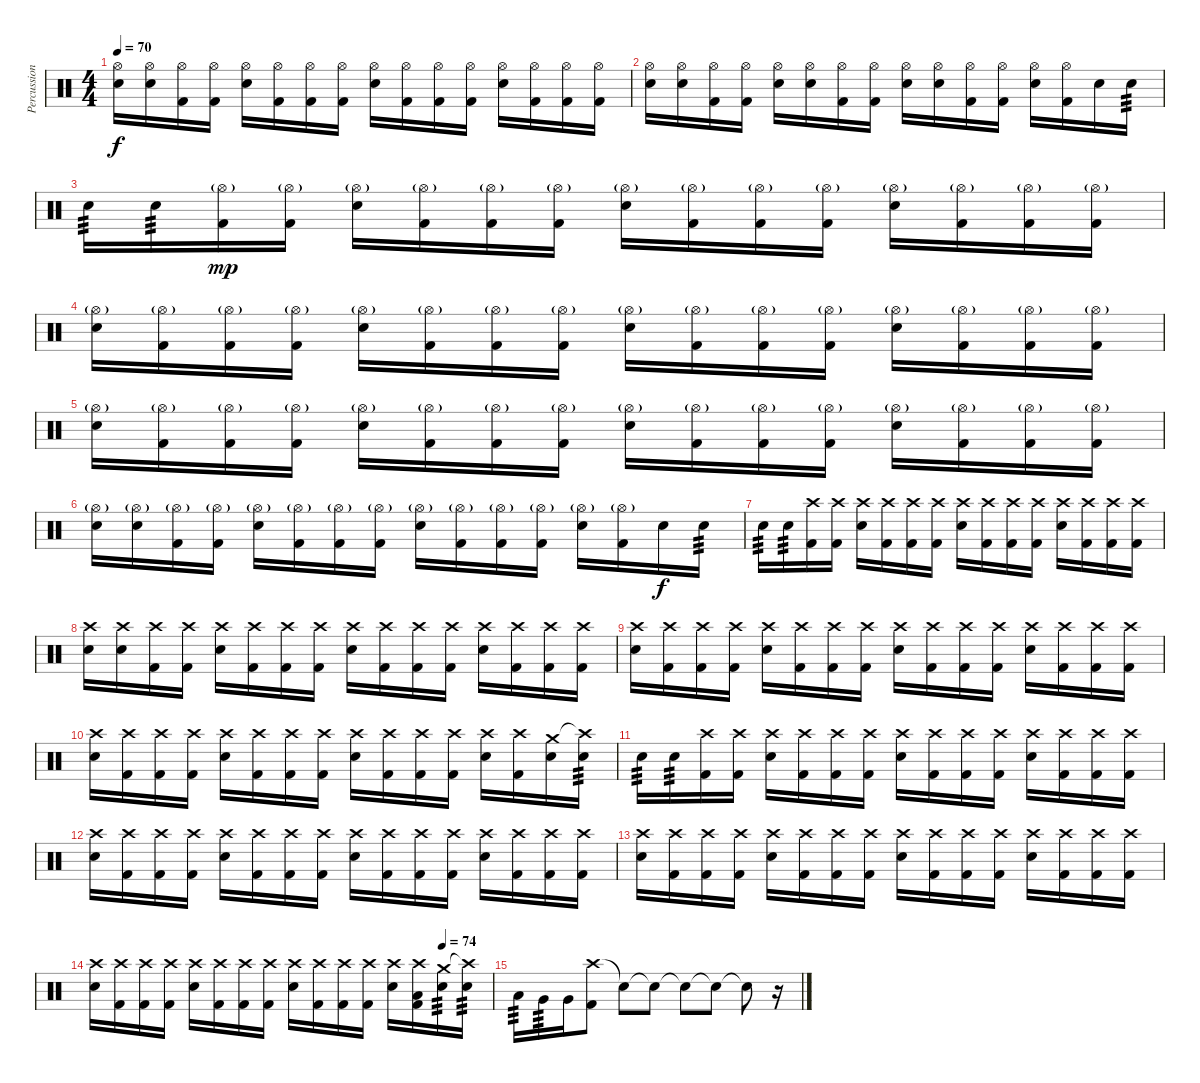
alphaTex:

\track ("Percussion" "Percussion") {instrument percussion}
\staff {score}
\articulation defaults
\ts (4 4)
\tempo 70
\clef neutral
\ks c
("Hi-Hat (open)" "Electric Snare (hit)").16{dy f} ("Hi-Hat (open)" "Electric Snare (hit)").16 ("Hi-Hat (open)" "Kick (hit) 2").16 ("Hi-Hat (open)" "Kick (hit) 2").16 ("Hi-Hat (open)" "Electric Snare (hit)").16 ("Hi-Hat (open)" "Kick (hit) 2").16 ("Hi-Hat (open)" "Kick (hit) 2").16 ("Hi-Hat (open)" "Kick (hit) 2").16 ("Hi-Hat (open)" "Electric Snare (hit)").16 ("Hi-Hat (open)" "Kick (hit) 2").16 ("Hi-Hat (open)" "Kick (hit) 2").16 ("Hi-Hat (open)" "Kick (hit) 2").16 ("Hi-Hat (open)" "Electric Snare (hit)").16 ("Hi-Hat (open)" "Kick (hit) 2").16 ("Hi-Hat (open)" "Kick (hit) 2").16 ("Hi-Hat (open)" "Kick (hit) 2").16 |
("Hi-Hat (open)" "Electric Snare (hit)").16 ("Hi-Hat (open)" "Electric Snare (hit)").16 ("Hi-Hat (open)" "Kick (hit) 2").16 ("Hi-Hat (open)" "Kick (hit) 2").16 ("Hi-Hat (open)" "Electric Snare (hit)").16 ("Hi-Hat (open)" "Electric Snare (hit)").16 ("Hi-Hat (open)" "Kick (hit) 2").16 ("Hi-Hat (open)" "Kick (hit) 2").16 ("Hi-Hat (open)" "Electric Snare (hit)").16 ("Hi-Hat (open)" "Electric Snare (hit)").16 ("Hi-Hat (open)" "Kick (hit) 2").16 ("Hi-Hat (open)" "Kick (hit) 2").16 ("Hi-Hat (open)" "Electric Snare (hit)").16 ("Hi-Hat (open)" "Kick (hit) 2").16 "Electric Snare (hit)".16 "Electric Snare (hit)".16{tp 3} |
"Electric Snare (hit)".16{tp 3} "Electric Snare (hit)".16{tp 3} ("Hi-Hat (open)"{g} "Kick (hit) 2").16{dy mp} ("Hi-Hat (open)"{g} "Kick (hit) 2").16 ("Hi-Hat (open)"{g} "Electric Snare (hit)").16 ("Hi-Hat (open)"{g} "Kick (hit) 2").16 ("Hi-Hat (open)"{g} "Kick (hit) 2").16 ("Hi-Hat (open)"{g} "Kick (hit) 2").16 ("Hi-Hat (open)"{g} "Electric Snare (hit)").16 ("Hi-Hat (open)"{g} "Kick (hit) 2").16 ("Hi-Hat (open)"{g} "Kick (hit) 2").16 ("Hi-Hat (open)"{g} "Kick (hit) 2").16 ("Hi-Hat (open)"{g} "Electric Snare (hit)").16 ("Hi-Hat (open)"{g} "Kick (hit) 2").16 ("Hi-Hat (open)"{g} "Kick (hit) 2").16 ("Hi-Hat (open)"{g} "Kick (hit) 2").16 |
("Hi-Hat (open)"{g} "Electric Snare (hit)").16 ("Hi-Hat (open)"{g} "Kick (hit) 2").16 ("Hi-Hat (open)"{g} "Kick (hit) 2").16 ("Hi-Hat (open)"{g} "Kick (hit) 2").16 ("Hi-Hat (open)"{g} "Electric Snare (hit)").16 ("Hi-Hat (open)"{g} "Kick (hit) 2").16 ("Hi-Hat (open)"{g} "Kick (hit) 2").16 ("Hi-Hat (open)"{g} "Kick (hit) 2").16 ("Hi-Hat (open)"{g} "Electric Snare (hit)").16 ("Hi-Hat (open)"{g} "Kick (hit) 2").16 ("Hi-Hat (open)"{g} "Kick (hit) 2").16 ("Hi-Hat (open)"{g} "Kick (hit) 2").16 ("Hi-Hat (open)"{g} "Electric Snare (hit)").16 ("Hi-Hat (open)"{g} "Kick (hit) 2").16 ("Hi-Hat (open)"{g} "Kick (hit) 2").16 ("Hi-Hat (open)"{g} "Kick (hit) 2").16 |
("Hi-Hat (open)"{g} "Electric Snare (hit)").16 ("Hi-Hat (open)"{g} "Kick (hit) 2").16 ("Hi-Hat (open)"{g} "Kick (hit) 2").16 ("Hi-Hat (open)"{g} "Kick (hit) 2").16 ("Hi-Hat (open)"{g} "Electric Snare (hit)").16 ("Hi-Hat (open)"{g} "Kick (hit) 2").16 ("Hi-Hat (open)"{g} "Kick (hit) 2").16 ("Hi-Hat (open)"{g} "Kick (hit) 2").16 ("Hi-Hat (open)"{g} "Electric Snare (hit)").16 ("Hi-Hat (open)"{g} "Kick (hit) 2").16 ("Hi-Hat (open)"{g} "Kick (hit) 2").16 ("Hi-Hat (open)"{g} "Kick (hit) 2").16 ("Hi-Hat (open)"{g} "Electric Snare (hit)").16 ("Hi-Hat (open)"{g} "Kick (hit) 2").16 ("Hi-Hat (open)"{g} "Kick (hit) 2").16 ("Hi-Hat (open)"{g} "Kick (hit) 2").16 |
("Hi-Hat (open)"{g} "Electric Snare (hit)").16 ("Hi-Hat (open)"{g} "Electric Snare (hit)").16 ("Hi-Hat (open)"{g} "Kick (hit) 2").16 ("Hi-Hat (open)"{g} "Kick (hit) 2").16 ("Hi-Hat (open)"{g} "Electric Snare (hit)").16 ("Hi-Hat (open)"{g} "Kick (hit) 2").16 ("Hi-Hat (open)"{g} "Kick (hit) 2").16 ("Hi-Hat (open)"{g} "Kick (hit) 2").16 ("Hi-Hat (open)"{g} "Electric Snare (hit)").16 ("Hi-Hat (open)"{g} "Kick (hit) 2").16 ("Hi-Hat (open)"{g} "Kick (hit) 2").16 ("Hi-Hat (open)"{g} "Kick (hit) 2").16 ("Hi-Hat (open)"{g} "Electric Snare (hit)").16 ("Hi-Hat (open)"{g} "Kick (hit) 2").16 "Electric Snare (hit)".16{dy f} "Electric Snare (hit)".16{tp 3} |
"Electric Snare (hit)".16{tp 3} "Electric Snare (hit)".16{tp 3} ("Crash high (hit)" "Kick (hit) 2").16 ("Crash high (hit)" "Kick (hit) 2").16 ("Crash high (hit)" "Electric Snare (hit)").16 ("Crash high (hit)" "Kick (hit) 2").16 ("Crash high (hit)" "Kick (hit) 2").16 ("Crash high (hit)" "Kick (hit) 2").16 ("Crash high (hit)" "Electric Snare (hit)").16 ("Crash high (hit)" "Kick (hit) 2").16 ("Crash high (hit)" "Kick (hit) 2").16 ("Crash high (hit)" "Kick (hit) 2").16 ("Crash high (hit)" "Electric Snare (hit)").16 ("Crash high (hit)" "Kick (hit) 2").16 ("Crash high (hit)" "Kick (hit) 2").16 ("Crash high (hit)" "Kick (hit) 2").16 |
("Crash high (hit)" "Electric Snare (hit)").16 ("Crash high (hit)" "Electric Snare (hit)").16 ("Crash high (hit)" "Kick (hit) 2").16 ("Crash high (hit)" "Kick (hit) 2").16 ("Crash high (hit)" "Electric Snare (hit)").16 ("Crash high (hit)" "Kick (hit) 2").16 ("Crash high (hit)" "Kick (hit) 2").16 ("Crash high (hit)" "Kick (hit) 2").16 ("Crash high (hit)" "Electric Snare (hit)").16 ("Crash high (hit)" "Kick (hit) 2").16 ("Crash high (hit)" "Kick (hit) 2").16 ("Crash high (hit)" "Kick (hit) 2").16 ("Crash high (hit)" "Electric Snare (hit)").16 ("Crash high (hit)" "Kick (hit) 2").16 ("Crash high (hit)" "Kick (hit) 2").16 ("Crash high (hit)" "Kick (hit) 2").16 |
("Crash high (hit)" "Electric Snare (hit)").16 ("Crash high (hit)" "Kick (hit) 2").16 ("Crash high (hit)" "Kick (hit) 2").16 ("Crash high (hit)" "Kick (hit) 2").16 ("Crash high (hit)" "Electric Snare (hit)").16 ("Crash high (hit)" "Kick (hit) 2").16 ("Crash high (hit)" "Kick (hit) 2").16 ("Crash high (hit)" "Kick (hit) 2").16 ("Crash high (hit)" "Electric Snare (hit)").16 ("Crash high (hit)" "Kick (hit) 2").16 ("Crash high (hit)" "Kick (hit) 2").16 ("Crash high (hit)" "Kick (hit) 2").16 ("Crash high (hit)" "Electric Snare (hit)").16 ("Crash high (hit)" "Kick (hit) 2").16 ("Crash high (hit)" "Kick (hit) 2").16 ("Crash high (hit)" "Kick (hit) 2").16 |
("Crash high (hit)" "Electric Snare (hit)").16 ("Crash high (hit)" "Kick (hit) 2").16 ("Crash high (hit)" "Kick (hit) 2").16 ("Crash high (hit)" "Kick (hit) 2").16 ("Crash high (hit)" "Electric Snare (hit)").16 ("Crash high (hit)" "Kick (hit) 2").16 ("Crash high (hit)" "Kick (hit) 2").16 ("Crash high (hit)" "Kick (hit) 2").16 ("Crash high (hit)" "Electric Snare (hit)").16 ("Crash high (hit)" "Kick (hit) 2").16 ("Crash high (hit)" "Kick (hit) 2").16 ("Crash high (hit)" "Kick (hit) 2").16 ("Crash high (hit)" "Electric Snare (hit)").16 ("Crash high (hit)" "Kick (hit) 2").16 ("Crash medium (hit)" "Electric Snare (hit)").16 ("Crash high (hit)"{t} "Electric Snare (hit)").16{tp 3} |
"Electric Snare (hit)".16{tp 3} "Electric Snare (hit)".16{tp 3} ("Crash high (hit)" "Kick (hit) 2").16 ("Crash high (hit)" "Kick (hit) 2").16 ("Crash high (hit)" "Electric Snare (hit)").16 ("Crash high (hit)" "Kick (hit) 2").16 ("Crash high (hit)" "Kick (hit) 2").16 ("Crash high (hit)" "Kick (hit) 2").16 ("Crash high (hit)" "Electric Snare (hit)").16 ("Crash high (hit)" "Kick (hit) 2").16 ("Crash high (hit)" "Kick (hit) 2").16 ("Crash high (hit)" "Kick (hit) 2").16 ("Crash high (hit)" "Electric Snare (hit)").16 ("Crash high (hit)" "Kick (hit) 2").16 ("Crash high (hit)" "Kick (hit) 2").16 ("Crash high (hit)" "Kick (hit) 2").16 |
("Crash high (hit)" "Electric Snare (hit)").16 ("Crash high (hit)" "Kick (hit) 2").16 ("Crash high (hit)" "Kick (hit) 2").16 ("Crash high (hit)" "Kick (hit) 2").16 ("Crash high (hit)" "Electric Snare (hit)").16 ("Crash high (hit)" "Kick (hit) 2").16 ("Crash high (hit)" "Kick (hit) 2").16 ("Crash high (hit)" "Kick (hit) 2").16 ("Crash high (hit)" "Electric Snare (hit)").16 ("Crash high (hit)" "Kick (hit) 2").16 ("Crash high (hit)" "Kick (hit) 2").16 ("Crash high (hit)" "Kick (hit) 2").16 ("Crash high (hit)" "Electric Snare (hit)").16 ("Crash high (hit)" "Kick (hit) 2").16 ("Crash high (hit)" "Kick (hit) 2").16 ("Crash high (hit)" "Kick (hit) 2").16 |
("Crash high (hit)" "Electric Snare (hit)").16 ("Crash high (hit)" "Kick (hit) 2").16 ("Crash high (hit)" "Kick (hit) 2").16 ("Crash high (hit)" "Kick (hit) 2").16 ("Crash high (hit)" "Electric Snare (hit)").16 ("Crash high (hit)" "Kick (hit) 2").16 ("Crash high (hit)" "Kick (hit) 2").16 ("Crash high (hit)" "Kick (hit) 2").16 ("Crash high (hit)" "Electric Snare (hit)").16 ("Crash high (hit)" "Kick (hit) 2").16 ("Crash high (hit)" "Kick (hit) 2").16 ("Crash high (hit)" "Kick (hit) 2").16 ("Crash high (hit)" "Electric Snare (hit)").16 ("Crash high (hit)" "Kick (hit) 2").16 ("Crash high (hit)" "Kick (hit) 2").16 ("Crash high (hit)" "Kick (hit) 2").16 |
\tempo (74 0.875)
("Crash high (hit)" "Electric Snare (hit)").16 ("Crash high (hit)" "Kick (hit) 2").16 ("Crash high (hit)" "Kick (hit) 2").16 ("Crash high (hit)" "Kick (hit) 2").16 ("Crash high (hit)" "Electric Snare (hit)").16 ("Crash high (hit)" "Kick (hit) 2").16 ("Crash high (hit)" "Kick (hit) 2").16 ("Crash high (hit)" "Kick (hit) 2").16 ("Crash high (hit)" "Electric Snare (hit)").16 ("Crash high (hit)" "Kick (hit) 2").16 ("Crash high (hit)" "Kick (hit) 2").16 ("Crash high (hit)" "Kick (hit) 2").16 ("Crash high (hit)" "Electric Snare (hit)").16 ("Crash high (hit)" "Low Tom (hit)" "Kick (hit) 2").16 ("Crash medium (hit)" "Electric Snare (hit)").16{tp 3} ("Crash high (hit)"{t} "Electric Snare (hit)").16{tp 3} |
"Low Tom (hit)".16{tp 3} "Very Low Tom (hit)".16{tp 3} "Very Low Tom (hit)".16 ("Crash high (hit)" "Kick (hit) 2").8 "Snare (hit)"{t}.8 "Snare (hit)"{t}.8 "Snare (hit)"{t}.8 "Snare (hit)"{t}.8 "Snare (hit)"{t}.8 r.16
